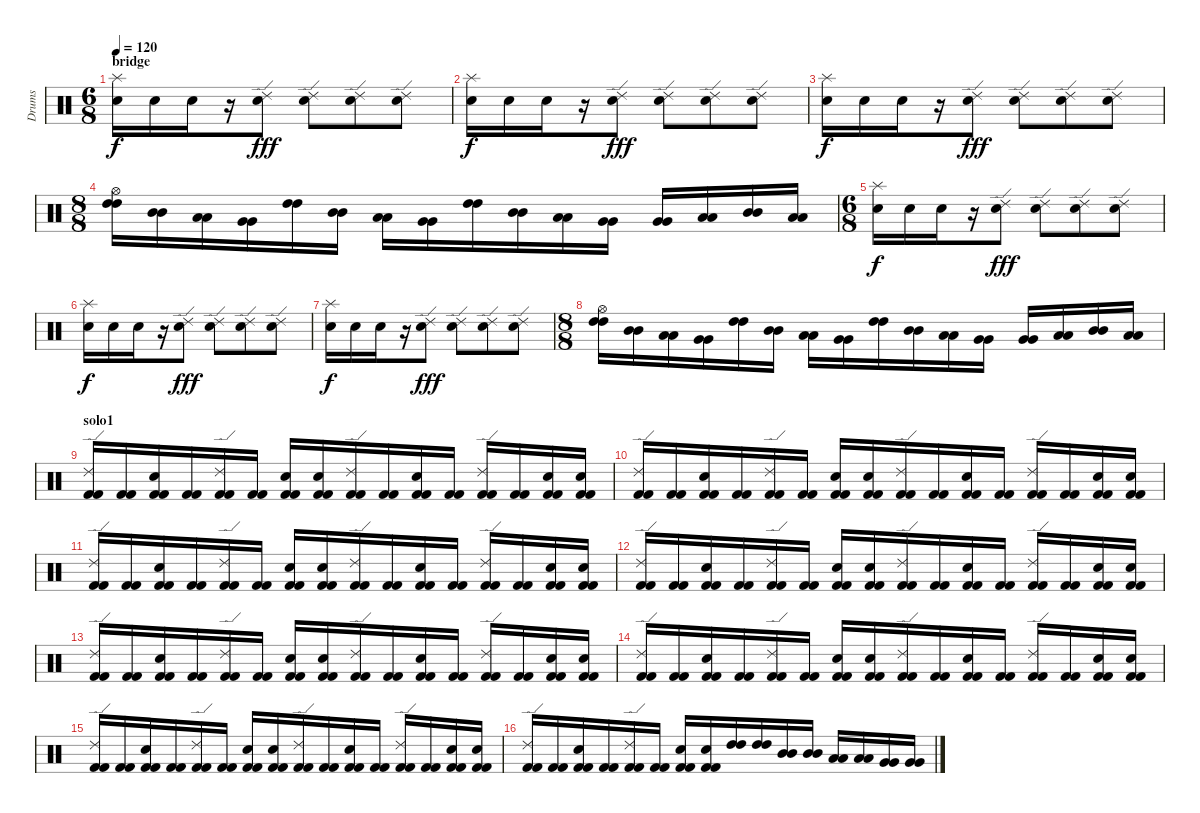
\track ("Drums" "Drums") {instrument percussion}
\staff {score}
\articulation defaults
\ts (6 8)
\section ("" "bridge")
\tempo 120
\clef neutral
\ks c
("Snare (hit) 2" "Splash (hit)").16{dy f} "Snare (hit) 2".16 "Snare (hit) 2".16 r.16 ("Electric Snare (hit)" "Ride (edge) 2").8{dy fff} ("Electric Snare (hit)" "Ride (edge) 2").8 ("Electric Snare (hit)" "Ride (edge) 2").8 ("Electric Snare (hit)" "Ride (edge) 2").8 |
("Snare (hit) 2" "Splash (hit)").16{dy f} "Snare (hit) 2".16 "Snare (hit) 2".16 r.16 ("Electric Snare (hit)" "Ride (edge) 2").8{dy fff} ("Electric Snare (hit)" "Ride (edge) 2").8 ("Electric Snare (hit)" "Ride (edge) 2").8 ("Electric Snare (hit)" "Ride (edge) 2").8 |
("Snare (hit) 2" "Splash (hit)").16{dy f} "Snare (hit) 2".16 "Snare (hit) 2".16 r.16 ("Electric Snare (hit)" "Ride (edge) 2").8{dy fff} ("Electric Snare (hit)" "Ride (edge) 2").8 ("Electric Snare (hit)" "Ride (edge) 2").8 ("Electric Snare (hit)" "Ride (edge) 2").8 |
\ts (8 8)
("High Tom (hit)" "High Tom (hit)" "Hi-Hat (open)").16 ("Mid Tom (hit)" "Mid Tom (hit)").16 ("Low Tom (hit)" "Low Tom (hit)").16 ("Very Low Tom (hit)" "Very Low Tom (hit)").16 ("High Tom (hit)" "High Tom (hit)").16 ("Mid Tom (hit)" "Mid Tom (hit)").16 ("Low Tom (hit)" "Low Tom (hit)").16 ("Very Low Tom (hit)" "Very Low Tom (hit)").16 ("High Tom (hit)" "High Tom (hit)").16 ("Mid Tom (hit)" "Mid Tom (hit)").16 ("Low Tom (hit)" "Low Tom (hit)").16 ("Very Low Tom (hit)" "Very Low Tom (hit)").16 ("Very Low Tom (hit)" "Very Low Tom (hit)").16 ("Low Tom (hit)" "Low Tom (hit)").16 ("Mid Tom (hit)" "Mid Tom (hit)").16 ("Low Tom (hit)" "Low Tom (hit)").16 |
\ts (6 8)
("Snare (hit) 2" "Splash (hit)").16{dy f} "Snare (hit) 2".16 "Snare (hit) 2".16 r.16 ("Electric Snare (hit)" "Ride (edge) 2").8{dy fff} ("Electric Snare (hit)" "Ride (edge) 2").8 ("Electric Snare (hit)" "Ride (edge) 2").8 ("Electric Snare (hit)" "Ride (edge) 2").8 |
("Snare (hit) 2" "Splash (hit)").16{dy f} "Snare (hit) 2".16 "Snare (hit) 2".16 r.16 ("Electric Snare (hit)" "Ride (edge) 2").8{dy fff} ("Electric Snare (hit)" "Ride (edge) 2").8 ("Electric Snare (hit)" "Ride (edge) 2").8 ("Electric Snare (hit)" "Ride (edge) 2").8 |
("Snare (hit) 2" "Splash (hit)").16{dy f} "Snare (hit) 2".16 "Snare (hit) 2".16 r.16 ("Electric Snare (hit)" "Ride (edge) 2").8{dy fff} ("Electric Snare (hit)" "Ride (edge) 2").8 ("Electric Snare (hit)" "Ride (edge) 2").8 ("Electric Snare (hit)" "Ride (edge) 2").8 |
\ts (8 8)
("High Tom (hit)" "High Tom (hit)" "Hi-Hat (open)").16 ("Mid Tom (hit)" "Mid Tom (hit)").16 ("Low Tom (hit)" "Low Tom (hit)").16 ("Very Low Tom (hit)" "Very Low Tom (hit)").16 ("High Tom (hit)" "High Tom (hit)").16 ("Mid Tom (hit)" "Mid Tom (hit)").16 ("Low Tom (hit)" "Low Tom (hit)").16 ("Very Low Tom (hit)" "Very Low Tom (hit)").16 ("High Tom (hit)" "High Tom (hit)").16 ("Mid Tom (hit)" "Mid Tom (hit)").16 ("Low Tom (hit)" "Low Tom (hit)").16 ("Very Low Tom (hit)" "Very Low Tom (hit)").16 ("Very Low Tom (hit)" "Very Low Tom (hit)").16 ("Low Tom (hit)" "Low Tom (hit)").16 ("Mid Tom (hit)" "Mid Tom (hit)").16 ("Low Tom (hit)" "Low Tom (hit)").16 |
\section ("" "solo1")
("Ride (edge) 2" "Kick (hit) 2" "Kick (hit) 2").16 ("Kick (hit) 2" "Kick (hit) 2").16 ("Electric Snare (hit)" "Kick (hit) 2" "Kick (hit) 2").16 ("Kick (hit) 2" "Kick (hit) 2").16 ("Ride (edge) 2" "Kick (hit) 2" "Kick (hit) 2").16 ("Kick (hit) 2" "Kick (hit) 2").16 ("Electric Snare (hit)" "Kick (hit) 2" "Kick (hit) 2").16 ("Electric Snare (hit)" "Kick (hit) 2" "Kick (hit) 2").16 ("Ride (edge) 2" "Kick (hit) 2" "Kick (hit) 2").16 ("Kick (hit) 2" "Kick (hit) 2").16 ("Electric Snare (hit)" "Kick (hit) 2" "Kick (hit) 2").16 ("Kick (hit) 2" "Kick (hit) 2").16 ("Ride (edge) 2" "Kick (hit) 2" "Kick (hit) 2").16 ("Kick (hit) 2" "Kick (hit) 2").16 ("Electric Snare (hit)" "Kick (hit) 2" "Kick (hit) 2").16 ("Electric Snare (hit)" "Kick (hit) 2" "Kick (hit) 2").16 |
("Ride (edge) 2" "Kick (hit) 2" "Kick (hit) 2").16 ("Kick (hit) 2" "Kick (hit) 2").16 ("Electric Snare (hit)" "Kick (hit) 2" "Kick (hit) 2").16 ("Kick (hit) 2" "Kick (hit) 2").16 ("Ride (edge) 2" "Kick (hit) 2" "Kick (hit) 2").16 ("Kick (hit) 2" "Kick (hit) 2").16 ("Electric Snare (hit)" "Kick (hit) 2" "Kick (hit) 2").16 ("Electric Snare (hit)" "Kick (hit) 2" "Kick (hit) 2").16 ("Ride (edge) 2" "Kick (hit) 2" "Kick (hit) 2").16 ("Kick (hit) 2" "Kick (hit) 2").16 ("Electric Snare (hit)" "Kick (hit) 2" "Kick (hit) 2").16 ("Kick (hit) 2" "Kick (hit) 2").16 ("Ride (edge) 2" "Kick (hit) 2" "Kick (hit) 2").16 ("Kick (hit) 2" "Kick (hit) 2").16 ("Electric Snare (hit)" "Kick (hit) 2" "Kick (hit) 2").16 ("Electric Snare (hit)" "Kick (hit) 2" "Kick (hit) 2").16 |
("Ride (edge) 2" "Kick (hit) 2" "Kick (hit) 2").16 ("Kick (hit) 2" "Kick (hit) 2").16 ("Electric Snare (hit)" "Kick (hit) 2" "Kick (hit) 2").16 ("Kick (hit) 2" "Kick (hit) 2").16 ("Ride (edge) 2" "Kick (hit) 2" "Kick (hit) 2").16 ("Kick (hit) 2" "Kick (hit) 2").16 ("Electric Snare (hit)" "Kick (hit) 2" "Kick (hit) 2").16 ("Electric Snare (hit)" "Kick (hit) 2" "Kick (hit) 2").16 ("Ride (edge) 2" "Kick (hit) 2" "Kick (hit) 2").16 ("Kick (hit) 2" "Kick (hit) 2").16 ("Electric Snare (hit)" "Kick (hit) 2" "Kick (hit) 2").16 ("Kick (hit) 2" "Kick (hit) 2").16 ("Ride (edge) 2" "Kick (hit) 2" "Kick (hit) 2").16 ("Kick (hit) 2" "Kick (hit) 2").16 ("Electric Snare (hit)" "Kick (hit) 2" "Kick (hit) 2").16 ("Electric Snare (hit)" "Kick (hit) 2" "Kick (hit) 2").16 |
("Ride (edge) 2" "Kick (hit) 2" "Kick (hit) 2").16 ("Kick (hit) 2" "Kick (hit) 2").16 ("Electric Snare (hit)" "Kick (hit) 2" "Kick (hit) 2").16 ("Kick (hit) 2" "Kick (hit) 2").16 ("Ride (edge) 2" "Kick (hit) 2" "Kick (hit) 2").16 ("Kick (hit) 2" "Kick (hit) 2").16 ("Electric Snare (hit)" "Kick (hit) 2" "Kick (hit) 2").16 ("Electric Snare (hit)" "Kick (hit) 2" "Kick (hit) 2").16 ("Ride (edge) 2" "Kick (hit) 2" "Kick (hit) 2").16 ("Kick (hit) 2" "Kick (hit) 2").16 ("Electric Snare (hit)" "Kick (hit) 2" "Kick (hit) 2").16 ("Kick (hit) 2" "Kick (hit) 2").16 ("Ride (edge) 2" "Kick (hit) 2" "Kick (hit) 2").16 ("Kick (hit) 2" "Kick (hit) 2").16 ("Electric Snare (hit)" "Kick (hit) 2" "Kick (hit) 2").16 ("Electric Snare (hit)" "Kick (hit) 2" "Kick (hit) 2").16 |
("Ride (edge) 2" "Kick (hit) 2" "Kick (hit) 2").16 ("Kick (hit) 2" "Kick (hit) 2").16 ("Electric Snare (hit)" "Kick (hit) 2" "Kick (hit) 2").16 ("Kick (hit) 2" "Kick (hit) 2").16 ("Ride (edge) 2" "Kick (hit) 2" "Kick (hit) 2").16 ("Kick (hit) 2" "Kick (hit) 2").16 ("Electric Snare (hit)" "Kick (hit) 2" "Kick (hit) 2").16 ("Electric Snare (hit)" "Kick (hit) 2" "Kick (hit) 2").16 ("Ride (edge) 2" "Kick (hit) 2" "Kick (hit) 2").16 ("Kick (hit) 2" "Kick (hit) 2").16 ("Electric Snare (hit)" "Kick (hit) 2" "Kick (hit) 2").16 ("Kick (hit) 2" "Kick (hit) 2").16 ("Ride (edge) 2" "Kick (hit) 2" "Kick (hit) 2").16 ("Kick (hit) 2" "Kick (hit) 2").16 ("Electric Snare (hit)" "Kick (hit) 2" "Kick (hit) 2").16 ("Electric Snare (hit)" "Kick (hit) 2" "Kick (hit) 2").16 |
("Ride (edge) 2" "Kick (hit) 2" "Kick (hit) 2").16 ("Kick (hit) 2" "Kick (hit) 2").16 ("Electric Snare (hit)" "Kick (hit) 2" "Kick (hit) 2").16 ("Kick (hit) 2" "Kick (hit) 2").16 ("Ride (edge) 2" "Kick (hit) 2" "Kick (hit) 2").16 ("Kick (hit) 2" "Kick (hit) 2").16 ("Electric Snare (hit)" "Kick (hit) 2" "Kick (hit) 2").16 ("Electric Snare (hit)" "Kick (hit) 2" "Kick (hit) 2").16 ("Ride (edge) 2" "Kick (hit) 2" "Kick (hit) 2").16 ("Kick (hit) 2" "Kick (hit) 2").16 ("Electric Snare (hit)" "Kick (hit) 2" "Kick (hit) 2").16 ("Kick (hit) 2" "Kick (hit) 2").16 ("Ride (edge) 2" "Kick (hit) 2" "Kick (hit) 2").16 ("Kick (hit) 2" "Kick (hit) 2").16 ("Electric Snare (hit)" "Kick (hit) 2" "Kick (hit) 2").16 ("Electric Snare (hit)" "Kick (hit) 2" "Kick (hit) 2").16 |
("Ride (edge) 2" "Kick (hit) 2" "Kick (hit) 2").16 ("Kick (hit) 2" "Kick (hit) 2").16 ("Electric Snare (hit)" "Kick (hit) 2" "Kick (hit) 2").16 ("Kick (hit) 2" "Kick (hit) 2").16 ("Ride (edge) 2" "Kick (hit) 2" "Kick (hit) 2").16 ("Kick (hit) 2" "Kick (hit) 2").16 ("Electric Snare (hit)" "Kick (hit) 2" "Kick (hit) 2").16 ("Electric Snare (hit)" "Kick (hit) 2" "Kick (hit) 2").16 ("Ride (edge) 2" "Kick (hit) 2" "Kick (hit) 2").16 ("Kick (hit) 2" "Kick (hit) 2").16 ("Electric Snare (hit)" "Kick (hit) 2" "Kick (hit) 2").16 ("Kick (hit) 2" "Kick (hit) 2").16 ("Ride (edge) 2" "Kick (hit) 2" "Kick (hit) 2").16 ("Kick (hit) 2" "Kick (hit) 2").16 ("Electric Snare (hit)" "Kick (hit) 2" "Kick (hit) 2").16 ("Electric Snare (hit)" "Kick (hit) 2" "Kick (hit) 2").16 |
("Ride (edge) 2" "Kick (hit) 2" "Kick (hit) 2").16 ("Kick (hit) 2" "Kick (hit) 2").16 ("Electric Snare (hit)" "Kick (hit) 2" "Kick (hit) 2").16 ("Kick (hit) 2" "Kick (hit) 2").16 ("Ride (edge) 2" "Kick (hit) 2" "Kick (hit) 2").16 ("Kick (hit) 2" "Kick (hit) 2").16 ("Electric Snare (hit)" "Kick (hit) 2" "Kick (hit) 2").16 ("Electric Snare (hit)" "Kick (hit) 2" "Kick (hit) 2").16 ("High Tom (hit)" "High Tom (hit)").16 ("High Tom (hit)" "High Tom (hit)").16 ("Mid Tom (hit)" "Mid Tom (hit)").16 ("Mid Tom (hit)" "Mid Tom (hit)").16 ("Low Tom (hit)" "Low Tom (hit)").16 ("Low Tom (hit)" "Low Tom (hit)").16 ("Very Low Tom (hit)" "Very Low Tom (hit)").16 ("Very Low Tom (hit)" "Very Low Tom (hit)").16
